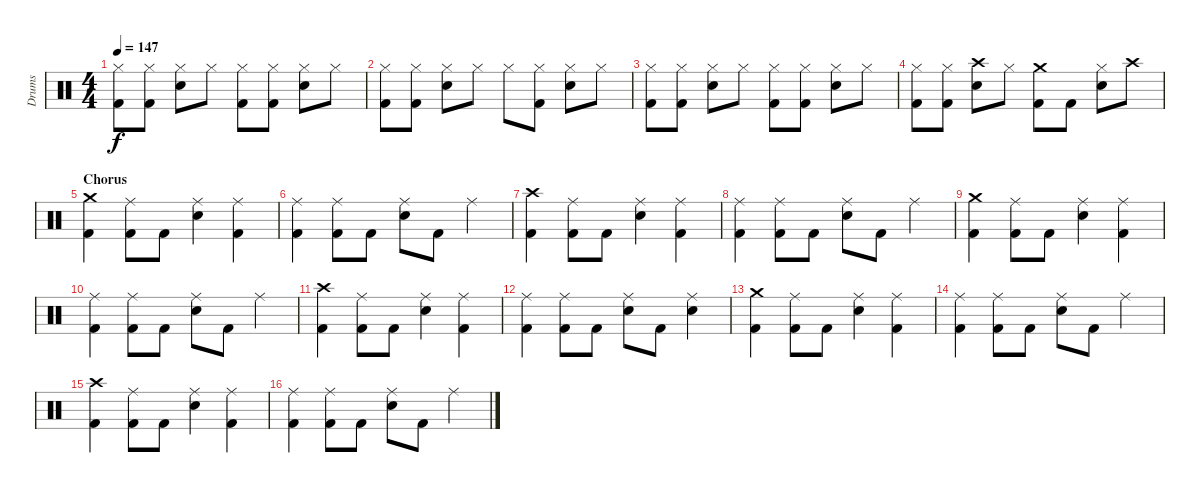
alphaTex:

\track ("Drums" "Drums") {instrument percussion}
\staff {score}
\articulation defaults
\ts (4 4)
\tempo 147
\clef neutral
\ks c
("Hi-Hat (closed)" "Kick (hit) 2").8{dy f} ("Hi-Hat (closed)" "Kick (hit) 2").8 ("Hi-Hat (closed)" "Snare (hit) 2").8 "Hi-Hat (closed)".8 ("Hi-Hat (closed)" "Kick (hit) 2").8 ("Hi-Hat (closed)" "Kick (hit) 2").8 ("Hi-Hat (closed)" "Snare (hit) 2").8 "Hi-Hat (closed)".8 |
("Hi-Hat (closed)" "Kick (hit) 2").8 ("Hi-Hat (closed)" "Kick (hit) 2").8 ("Hi-Hat (closed)" "Snare (hit) 2").8 "Hi-Hat (closed)".8 "Hi-Hat (closed)".8 ("Hi-Hat (closed)" "Kick (hit) 2").8 ("Hi-Hat (closed)" "Snare (hit) 2").8 "Hi-Hat (closed)".8 |
("Hi-Hat (closed)" "Kick (hit) 2").8 ("Hi-Hat (closed)" "Kick (hit) 2").8 ("Hi-Hat (closed)" "Snare (hit) 2").8 "Hi-Hat (closed)".8 ("Hi-Hat (closed)" "Kick (hit) 2").8 ("Hi-Hat (closed)" "Kick (hit) 2").8 ("Hi-Hat (closed)" "Snare (hit) 2").8 "Hi-Hat (closed)".8 |
("Hi-Hat (closed)" "Kick (hit) 2").8 ("Hi-Hat (closed)" "Kick (hit) 2").8 ("Crash high (hit)" "Snare (hit) 2").8 "Hi-Hat (closed)".8 ("Crash medium (hit)" "Kick (hit) 2").8 "Kick (hit) 2".8 ("Hi-Hat (closed)" "Snare (hit) 2").8 "Crash high (hit)".8 |
\section ("" "Chorus")
("Crash medium (hit)" "Kick (hit) 2").4 ("Ride (middle)" "Kick (hit) 2").8 "Kick (hit) 2".8 ("Ride (middle)" "Snare (hit) 2").4 ("Ride (middle)" "Kick (hit) 2").4 |
("Ride (middle)" "Kick (hit) 2").4 ("Ride (middle)" "Kick (hit) 2").8 "Kick (hit) 2".8 ("Ride (middle)" "Snare (hit) 2").8 "Kick (hit) 2".8 "Ride (middle)".4 |
("Crash high (hit)" "Kick (hit) 2").4 ("Ride (middle)" "Kick (hit) 2").8 "Kick (hit) 2".8 ("Ride (middle)" "Snare (hit) 2").4 ("Ride (middle)" "Kick (hit) 2").4 |
("Ride (middle)" "Kick (hit) 2").4 ("Ride (middle)" "Kick (hit) 2").8 "Kick (hit) 2".8 ("Ride (middle)" "Snare (hit) 2").8 "Kick (hit) 2".8 "Ride (middle)".4 |
("Crash medium (hit)" "Kick (hit) 2").4 ("Ride (middle)" "Kick (hit) 2").8 "Kick (hit) 2".8 ("Ride (middle)" "Snare (hit) 2").4 ("Ride (middle)" "Kick (hit) 2").4 |
("Ride (middle)" "Kick (hit) 2").4 ("Ride (middle)" "Kick (hit) 2").8 "Kick (hit) 2".8 ("Ride (middle)" "Snare (hit) 2").8 "Kick (hit) 2".8 "Ride (middle)".4 |
("Crash high (hit)" "Kick (hit) 2").4 ("Ride (middle)" "Kick (hit) 2").8 "Kick (hit) 2".8 ("Ride (middle)" "Snare (hit) 2").4 ("Ride (middle)" "Kick (hit) 2").4 |
("Ride (middle)" "Kick (hit) 2").4 ("Ride (middle)" "Kick (hit) 2").8 "Kick (hit) 2".8 ("Ride (middle)" "Snare (hit) 2").8 "Kick (hit) 2".8 ("Ride (middle)" "Snare (hit) 2").4 |
("Crash medium (hit)" "Kick (hit) 2").4 ("Ride (middle)" "Kick (hit) 2").8 "Kick (hit) 2".8 ("Ride (middle)" "Snare (hit) 2").4 ("Ride (middle)" "Kick (hit) 2").4 |
("Ride (middle)" "Kick (hit) 2").4 ("Ride (middle)" "Kick (hit) 2").8 "Kick (hit) 2".8 ("Ride (middle)" "Snare (hit) 2").8 "Kick (hit) 2".8 "Ride (middle)".4 |
("Crash high (hit)" "Kick (hit) 2").4 ("Ride (middle)" "Kick (hit) 2").8 "Kick (hit) 2".8 ("Ride (middle)" "Snare (hit) 2").4 ("Ride (middle)" "Kick (hit) 2").4 |
("Ride (middle)" "Kick (hit) 2").4 ("Ride (middle)" "Kick (hit) 2").8 "Kick (hit) 2".8 ("Ride (middle)" "Snare (hit) 2").8 "Kick (hit) 2".8 "Ride (middle)".4
